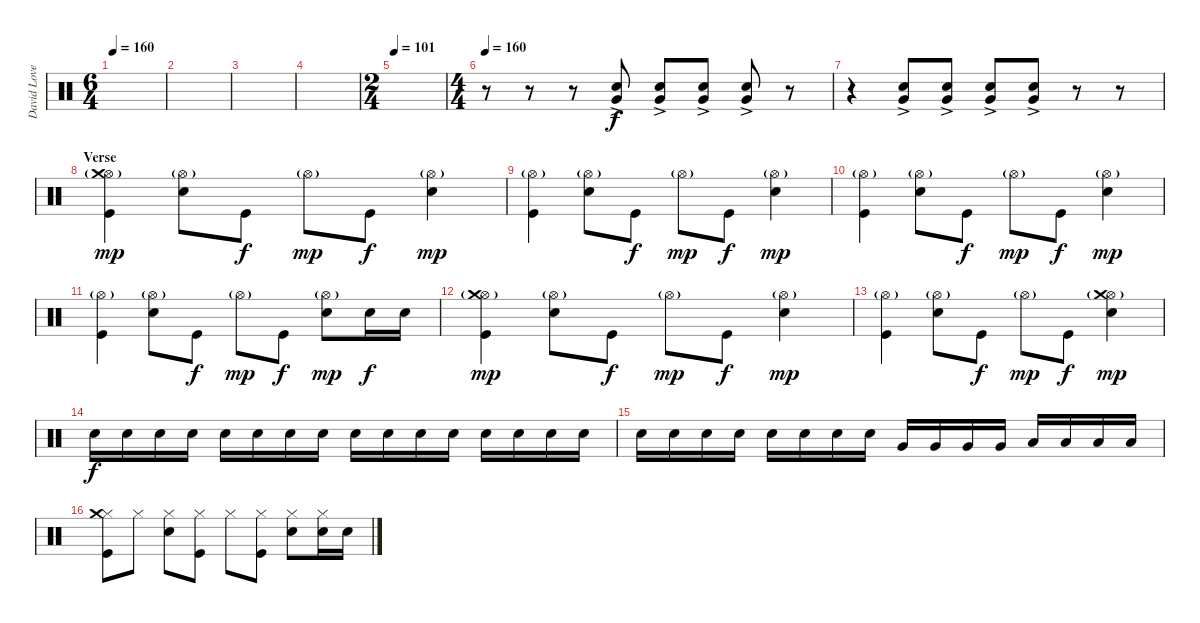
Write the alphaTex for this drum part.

\track ("David Lovering" "David Love") {instrument percussion}
\staff {score}
\articulation defaults
\ts (6 4)
\tempo 160
\tempo 80
\tempo 160
\clef neutral
\ks c
|
|
|
|
\ts (2 4)
\tempo 140
\tempo 101
|
\ts (4 4)
\tempo 160
r.8 r.8 r.8 ("Snare (hit) 2"{ac} "Very Low Tom (hit)"{ac}).8 ("Snare (hit) 2"{ac} "Very Low Tom (hit)"{ac}).8 ("Snare (hit) 2"{ac} "Very Low Tom (hit)"{ac}).8 ("Snare (hit) 2"{ac} "Very Low Tom (hit)"{ac}).8 r.8 |
r.4 ("Snare (hit) 2"{ac} "Very Low Tom (hit)"{ac}).8 ("Snare (hit) 2"{ac} "Very Low Tom (hit)"{ac}).8 ("Snare (hit) 2"{ac} "Very Low Tom (hit)"{ac}).8 ("Snare (hit) 2"{ac} "Very Low Tom (hit)"{ac}).8 r.8 r.8 |
\section ("" "Verse")
("Hi-Hat (open)"{g} "Crash medium (hit)" "Kick (hit)").4{dy mp} ("Hi-Hat (open)"{g} "Snare (hit) 2").8 "Kick (hit)".8{dy f} "Hi-Hat (open)"{g}.8{dy mp} "Kick (hit)".8{dy f} ("Hi-Hat (open)"{g} "Snare (hit) 2").4{dy mp} |
("Hi-Hat (open)"{g} "Kick (hit)").4 ("Hi-Hat (open)"{g} "Snare (hit) 2").8 "Kick (hit)".8{dy f} "Hi-Hat (open)"{g}.8{dy mp} "Kick (hit)".8{dy f} ("Hi-Hat (open)"{g} "Snare (hit) 2").4{dy mp} |
("Hi-Hat (open)"{g} "Kick (hit)").4 ("Hi-Hat (open)"{g} "Snare (hit) 2").8 "Kick (hit)".8{dy f} "Hi-Hat (open)"{g}.8{dy mp} "Kick (hit)".8{dy f} ("Hi-Hat (open)"{g} "Snare (hit) 2").4{dy mp} |
("Hi-Hat (open)"{g} "Kick (hit)").4 ("Hi-Hat (open)"{g} "Snare (hit) 2").8 "Kick (hit)".8{dy f} "Hi-Hat (open)"{g}.8{dy mp} "Kick (hit)".8{dy f} ("Hi-Hat (open)"{g} "Snare (hit) 2").8{dy mp} "Snare (hit) 2".16{dy f} "Snare (hit) 2".16 |
("Hi-Hat (open)"{g} "Crash medium (hit)" "Kick (hit)").4{dy mp} ("Hi-Hat (open)"{g} "Snare (hit) 2").8 "Kick (hit)".8{dy f} "Hi-Hat (open)"{g}.8{dy mp} "Kick (hit)".8{dy f} ("Hi-Hat (open)"{g} "Snare (hit) 2").4{dy mp} |
("Hi-Hat (open)"{g} "Kick (hit)").4 ("Hi-Hat (open)"{g} "Snare (hit) 2").8 "Kick (hit)".8{dy f} "Hi-Hat (open)"{g}.8{dy mp} "Kick (hit)".8{dy f} ("Hi-Hat (open)"{g} "Crash medium (hit)" "Snare (hit) 2").4{dy mp} |
"Snare (hit) 2".16{dy f} "Snare (hit) 2".16 "Snare (hit) 2".16 "Snare (hit) 2".16 "Snare (hit) 2".16 "Snare (hit) 2".16 "Snare (hit) 2".16 "Snare (hit) 2".16 "Snare (hit) 2".16 "Snare (hit) 2".16 "Snare (hit) 2".16 "Snare (hit) 2".16 "Snare (hit) 2".16 "Snare (hit) 2".16 "Snare (hit) 2".16 "Snare (hit) 2".16 |
"Snare (hit) 2".16 "Snare (hit) 2".16 "Snare (hit) 2".16 "Snare (hit) 2".16 "Snare (hit) 2".16 "Snare (hit) 2".16 "Snare (hit) 2".16 "Snare (hit) 2".16 "Very Low Tom (hit)".16 "Very Low Tom (hit)".16 "Very Low Tom (hit)".16 "Very Low Tom (hit)".16 "Low Floor Tom (hit)".16 "Low Floor Tom (hit)".16 "Low Floor Tom (hit)".16 "Low Floor Tom (hit)".16 |
("Hi-Hat (closed)" "Crash medium (hit)" "Kick (hit)").8 "Hi-Hat (closed)".8 ("Hi-Hat (closed)" "Snare (hit) 2").8 ("Hi-Hat (closed)" "Kick (hit)").8 "Hi-Hat (closed)".8 ("Hi-Hat (closed)" "Kick (hit)").8 ("Hi-Hat (closed)" "Snare (hit) 2").8 ("Hi-Hat (closed)" "Snare (hit) 2").16 "Snare (hit) 2".16
